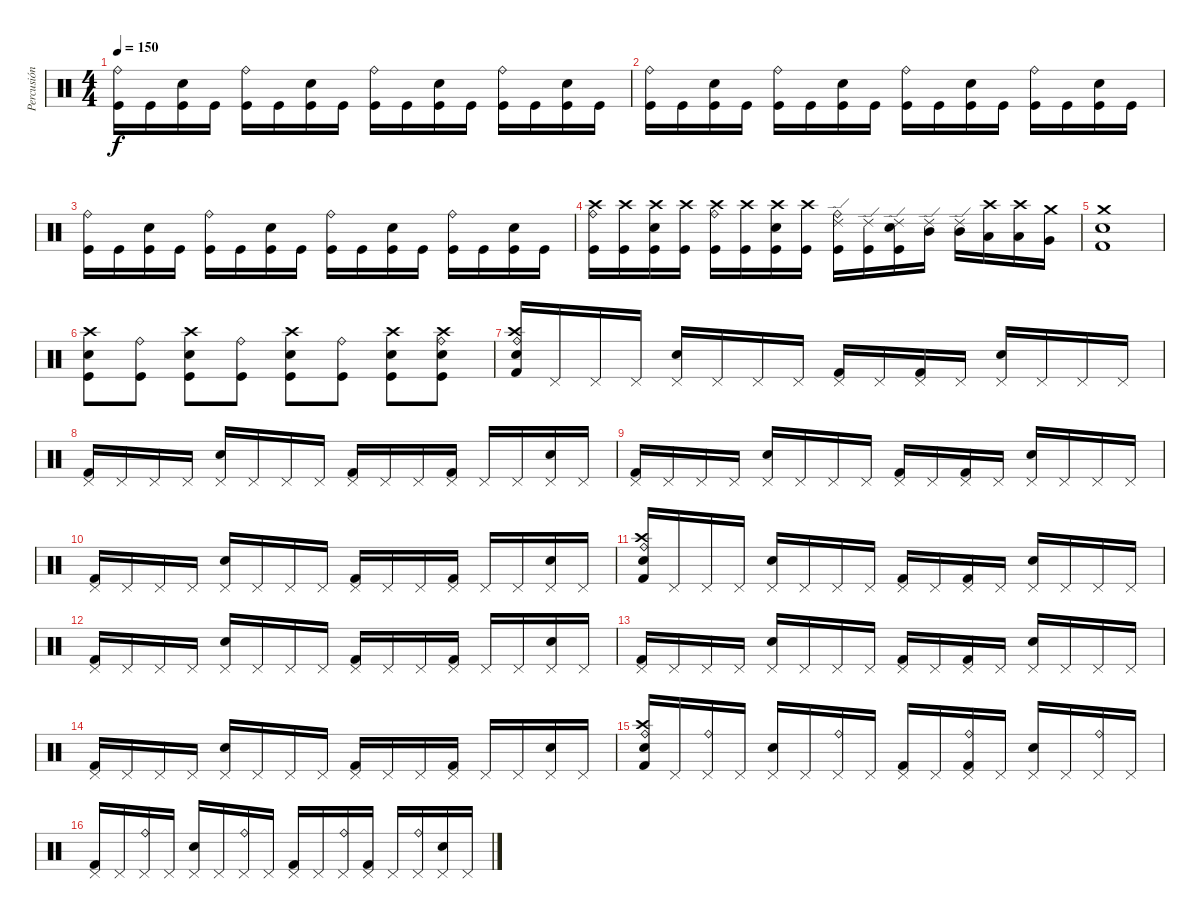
\track ("Percusión" "Percusión") {instrument percussion}
\staff {score}
\articulation defaults
\ts (4 4)
\tempo 150
\clef neutral
\ks c
("Ride (bell)" "Kick (hit)").16{dy f} "Kick (hit)".16 ("Electric Snare (hit)" "Kick (hit)").16 "Kick (hit)".16 ("Ride (bell)" "Kick (hit)").16 "Kick (hit)".16 ("Electric Snare (hit)" "Kick (hit)").16 "Kick (hit)".16 ("Ride (bell)" "Kick (hit)").16 "Kick (hit)".16 ("Electric Snare (hit)" "Kick (hit)").16 "Kick (hit)".16 ("Ride (bell)" "Kick (hit)").16 "Kick (hit)".16 ("Electric Snare (hit)" "Kick (hit)").16 "Kick (hit)".16 |
("Ride (bell)" "Kick (hit)").16 "Kick (hit)".16 ("Electric Snare (hit)" "Kick (hit)").16 "Kick (hit)".16 ("Ride (bell)" "Kick (hit)").16 "Kick (hit)".16 ("Electric Snare (hit)" "Kick (hit)").16 "Kick (hit)".16 ("Ride (bell)" "Kick (hit)").16 "Kick (hit)".16 ("Electric Snare (hit)" "Kick (hit)").16 "Kick (hit)".16 ("Ride (bell)" "Kick (hit)").16 "Kick (hit)".16 ("Electric Snare (hit)" "Kick (hit)").16 "Kick (hit)".16 |
("Ride (bell)" "Kick (hit)").16 "Kick (hit)".16 ("Electric Snare (hit)" "Kick (hit)").16 "Kick (hit)".16 ("Ride (bell)" "Kick (hit)").16 "Kick (hit)".16 ("Electric Snare (hit)" "Kick (hit)").16 "Kick (hit)".16 ("Ride (bell)" "Kick (hit)").16 "Kick (hit)".16 ("Electric Snare (hit)" "Kick (hit)").16 "Kick (hit)".16 ("Ride (bell)" "Kick (hit)").16 "Kick (hit)".16 ("Electric Snare (hit)" "Kick (hit)").16 "Kick (hit)".16 |
("Crash high (hit)" "Ride (bell)" "Kick (hit)").16 ("Crash high (hit)" "Kick (hit)").16 ("Crash high (hit)" "Electric Snare (hit)" "Kick (hit)").16 ("Crash high (hit)" "Kick (hit)").16 ("Crash high (hit)" "Ride (bell)" "Kick (hit)").16 ("Crash high (hit)" "Kick (hit)").16 ("Crash high (hit)" "Electric Snare (hit)" "Kick (hit)").16 ("Crash high (hit)" "Kick (hit)").16 ("Ride (edge) 2" "Ride (bell)" "Kick (hit)").16 ("Ride (edge) 2" "Kick (hit)").16 ("Ride (edge) 2" "Electric Snare (hit)" "Kick (hit)").16 ("Ride (edge) 2" "Mid Tom (hit)").16 ("Ride (edge) 2" "Mid Tom (hit)").16 ("Crash high (hit)" "Low Tom (hit)").16 ("Crash high (hit)" "Low Tom (hit)").16 ("Crash medium (hit)" "Very Low Tom (hit)").16 |
("Crash medium (hit)" "Electric Snare (hit)" "Kick (hit) 2").1 |
("Crash high (hit)" "Electric Snare (hit)" "Kick (hit)").8 ("Ride (bell)" "Kick (hit)").8 ("Crash high (hit)" "Electric Snare (hit)" "Kick (hit)").8 ("Ride (bell)" "Kick (hit)").8 ("Crash high (hit)" "Electric Snare (hit)" "Kick (hit)").8 ("Ride (bell)" "Kick (hit)").8 ("Crash high (hit)" "Electric Snare (hit)" "Kick (hit)").8 ("Crash high (hit)" "Ride (bell)" "Electric Snare (hit)" "Kick (hit)").8 |
("Crash high (hit)" "Ride (bell)" "Electric Snare (hit)" "Kick (hit) 2").16 "Pedal Hi-Hat (hit)".16 "Pedal Hi-Hat (hit)".16 "Pedal Hi-Hat (hit)".16 ("Pedal Hi-Hat (hit)" "Electric Snare (hit)").16 "Pedal Hi-Hat (hit)".16 "Pedal Hi-Hat (hit)".16 "Pedal Hi-Hat (hit)".16 ("Pedal Hi-Hat (hit)" "Kick (hit) 2").16 "Pedal Hi-Hat (hit)".16 ("Pedal Hi-Hat (hit)" "Kick (hit) 2").16 "Pedal Hi-Hat (hit)".16 ("Pedal Hi-Hat (hit)" "Electric Snare (hit)").16 "Pedal Hi-Hat (hit)".16 "Pedal Hi-Hat (hit)".16 "Pedal Hi-Hat (hit)".16 |
("Pedal Hi-Hat (hit)" "Kick (hit) 2").16 "Pedal Hi-Hat (hit)".16 "Pedal Hi-Hat (hit)".16 "Pedal Hi-Hat (hit)".16 ("Pedal Hi-Hat (hit)" "Electric Snare (hit)").16 "Pedal Hi-Hat (hit)".16 "Pedal Hi-Hat (hit)".16 "Pedal Hi-Hat (hit)".16 ("Pedal Hi-Hat (hit)" "Kick (hit) 2").16 "Pedal Hi-Hat (hit)".16 "Pedal Hi-Hat (hit)".16 ("Pedal Hi-Hat (hit)" "Kick (hit) 2").16 "Pedal Hi-Hat (hit)".16 "Pedal Hi-Hat (hit)".16 ("Pedal Hi-Hat (hit)" "Electric Snare (hit)").16 "Pedal Hi-Hat (hit)".16 |
("Pedal Hi-Hat (hit)" "Kick (hit) 2").16 "Pedal Hi-Hat (hit)".16 "Pedal Hi-Hat (hit)".16 "Pedal Hi-Hat (hit)".16 ("Pedal Hi-Hat (hit)" "Electric Snare (hit)").16 "Pedal Hi-Hat (hit)".16 "Pedal Hi-Hat (hit)".16 "Pedal Hi-Hat (hit)".16 ("Pedal Hi-Hat (hit)" "Kick (hit) 2").16 "Pedal Hi-Hat (hit)".16 ("Pedal Hi-Hat (hit)" "Kick (hit) 2").16 "Pedal Hi-Hat (hit)".16 ("Pedal Hi-Hat (hit)" "Electric Snare (hit)").16 "Pedal Hi-Hat (hit)".16 "Pedal Hi-Hat (hit)".16 "Pedal Hi-Hat (hit)".16 |
("Pedal Hi-Hat (hit)" "Kick (hit) 2").16 "Pedal Hi-Hat (hit)".16 "Pedal Hi-Hat (hit)".16 "Pedal Hi-Hat (hit)".16 ("Pedal Hi-Hat (hit)" "Electric Snare (hit)").16 "Pedal Hi-Hat (hit)".16 "Pedal Hi-Hat (hit)".16 "Pedal Hi-Hat (hit)".16 ("Pedal Hi-Hat (hit)" "Kick (hit) 2").16 "Pedal Hi-Hat (hit)".16 "Pedal Hi-Hat (hit)".16 ("Pedal Hi-Hat (hit)" "Kick (hit) 2").16 "Pedal Hi-Hat (hit)".16 "Pedal Hi-Hat (hit)".16 ("Pedal Hi-Hat (hit)" "Electric Snare (hit)").16 "Pedal Hi-Hat (hit)".16 |
("Crash high (hit)" "Ride (bell)" "Electric Snare (hit)" "Kick (hit) 2").16 "Pedal Hi-Hat (hit)".16 "Pedal Hi-Hat (hit)".16 "Pedal Hi-Hat (hit)".16 ("Pedal Hi-Hat (hit)" "Electric Snare (hit)").16 "Pedal Hi-Hat (hit)".16 "Pedal Hi-Hat (hit)".16 "Pedal Hi-Hat (hit)".16 ("Pedal Hi-Hat (hit)" "Kick (hit) 2").16 "Pedal Hi-Hat (hit)".16 ("Pedal Hi-Hat (hit)" "Kick (hit) 2").16 "Pedal Hi-Hat (hit)".16 ("Pedal Hi-Hat (hit)" "Electric Snare (hit)").16 "Pedal Hi-Hat (hit)".16 "Pedal Hi-Hat (hit)".16 "Pedal Hi-Hat (hit)".16 |
("Pedal Hi-Hat (hit)" "Kick (hit) 2").16 "Pedal Hi-Hat (hit)".16 "Pedal Hi-Hat (hit)".16 "Pedal Hi-Hat (hit)".16 ("Pedal Hi-Hat (hit)" "Electric Snare (hit)").16 "Pedal Hi-Hat (hit)".16 "Pedal Hi-Hat (hit)".16 "Pedal Hi-Hat (hit)".16 ("Pedal Hi-Hat (hit)" "Kick (hit) 2").16 "Pedal Hi-Hat (hit)".16 "Pedal Hi-Hat (hit)".16 ("Pedal Hi-Hat (hit)" "Kick (hit) 2").16 "Pedal Hi-Hat (hit)".16 "Pedal Hi-Hat (hit)".16 ("Pedal Hi-Hat (hit)" "Electric Snare (hit)").16 "Pedal Hi-Hat (hit)".16 |
("Pedal Hi-Hat (hit)" "Kick (hit) 2").16 "Pedal Hi-Hat (hit)".16 "Pedal Hi-Hat (hit)".16 "Pedal Hi-Hat (hit)".16 ("Pedal Hi-Hat (hit)" "Electric Snare (hit)").16 "Pedal Hi-Hat (hit)".16 "Pedal Hi-Hat (hit)".16 "Pedal Hi-Hat (hit)".16 ("Pedal Hi-Hat (hit)" "Kick (hit) 2").16 "Pedal Hi-Hat (hit)".16 ("Pedal Hi-Hat (hit)" "Kick (hit) 2").16 "Pedal Hi-Hat (hit)".16 ("Pedal Hi-Hat (hit)" "Electric Snare (hit)").16 "Pedal Hi-Hat (hit)".16 "Pedal Hi-Hat (hit)".16 "Pedal Hi-Hat (hit)".16 |
("Pedal Hi-Hat (hit)" "Kick (hit) 2").16 "Pedal Hi-Hat (hit)".16 "Pedal Hi-Hat (hit)".16 "Pedal Hi-Hat (hit)".16 ("Pedal Hi-Hat (hit)" "Electric Snare (hit)").16 "Pedal Hi-Hat (hit)".16 "Pedal Hi-Hat (hit)".16 "Pedal Hi-Hat (hit)".16 ("Pedal Hi-Hat (hit)" "Kick (hit) 2").16 "Pedal Hi-Hat (hit)".16 "Pedal Hi-Hat (hit)".16 ("Pedal Hi-Hat (hit)" "Kick (hit) 2").16 "Pedal Hi-Hat (hit)".16 "Pedal Hi-Hat (hit)".16 ("Pedal Hi-Hat (hit)" "Electric Snare (hit)").16 "Pedal Hi-Hat (hit)".16 |
("Crash high (hit)" "Ride (bell)" "Electric Snare (hit)" "Kick (hit) 2").16 "Pedal Hi-Hat (hit)".16 ("Pedal Hi-Hat (hit)" "Ride (bell)").16 "Pedal Hi-Hat (hit)".16 ("Pedal Hi-Hat (hit)" "Electric Snare (hit)").16 "Pedal Hi-Hat (hit)".16 ("Pedal Hi-Hat (hit)" "Ride (bell)").16 "Pedal Hi-Hat (hit)".16 ("Pedal Hi-Hat (hit)" "Kick (hit) 2").16 "Pedal Hi-Hat (hit)".16 ("Pedal Hi-Hat (hit)" "Ride (bell)" "Kick (hit) 2").16 "Pedal Hi-Hat (hit)".16 ("Pedal Hi-Hat (hit)" "Electric Snare (hit)").16 "Pedal Hi-Hat (hit)".16 ("Pedal Hi-Hat (hit)" "Ride (bell)").16 "Pedal Hi-Hat (hit)".16 |
("Pedal Hi-Hat (hit)" "Kick (hit) 2").16 "Pedal Hi-Hat (hit)".16 ("Pedal Hi-Hat (hit)" "Ride (bell)").16 "Pedal Hi-Hat (hit)".16 ("Pedal Hi-Hat (hit)" "Electric Snare (hit)").16 "Pedal Hi-Hat (hit)".16 ("Pedal Hi-Hat (hit)" "Ride (bell)").16 "Pedal Hi-Hat (hit)".16 ("Pedal Hi-Hat (hit)" "Kick (hit) 2").16 "Pedal Hi-Hat (hit)".16 ("Pedal Hi-Hat (hit)" "Ride (bell)").16 ("Pedal Hi-Hat (hit)" "Kick (hit) 2").16 "Pedal Hi-Hat (hit)".16 ("Pedal Hi-Hat (hit)" "Ride (bell)").16 ("Pedal Hi-Hat (hit)" "Electric Snare (hit)").16 "Pedal Hi-Hat (hit)".16
